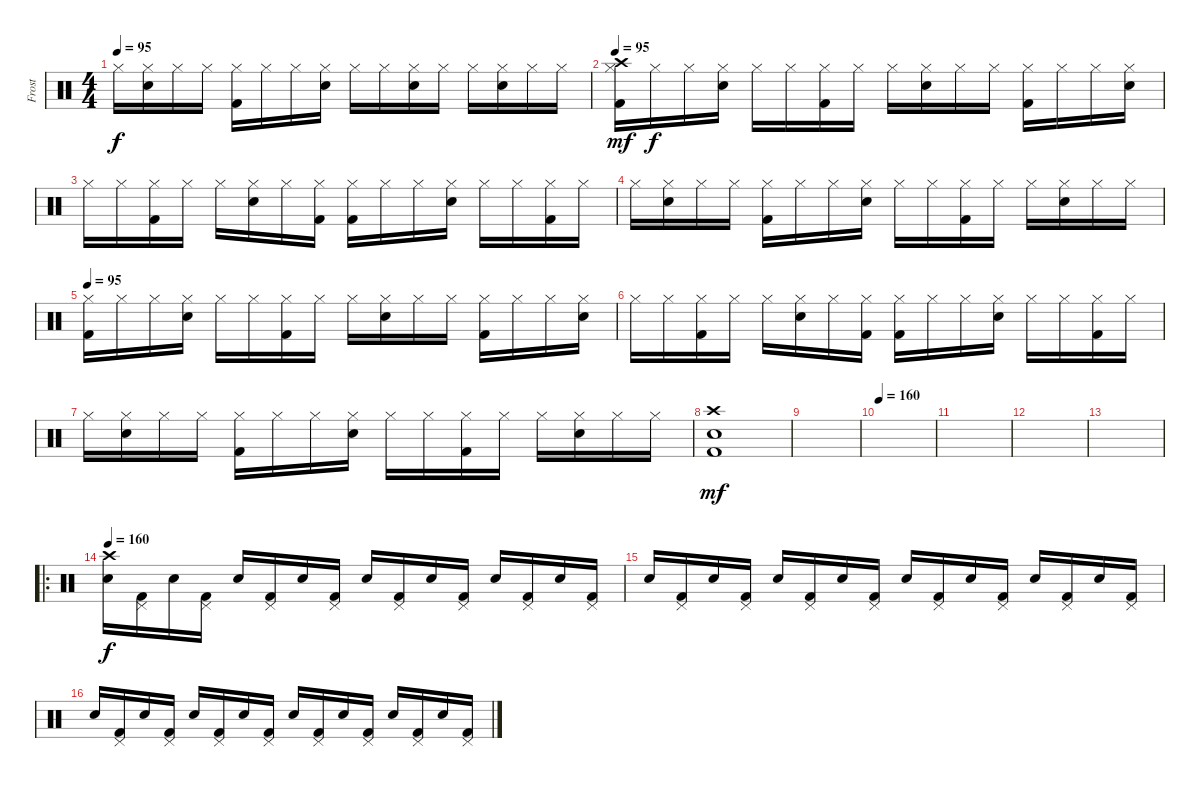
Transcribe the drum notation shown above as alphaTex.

\track ("Frost" "Frost") {instrument percussion}
\staff {score}
\articulation defaults
\ts (4 4)
\tempo 95
\clef neutral
\ks c "Hi-Hat (closed)".16{dy f}
("Hi-Hat (closed)" "Electric Snare (hit)").16 "Hi-Hat (closed)".16 "Hi-Hat (closed)".16 ("Hi-Hat (closed)" "Kick (hit) 2").16 "Hi-Hat (closed)".16 "Hi-Hat (closed)".16 ("Hi-Hat (closed)" "Electric Snare (hit)").16 "Hi-Hat (closed)".16 "Hi-Hat (closed)".16 ("Hi-Hat (closed)" "Electric Snare (hit)").16 "Hi-Hat (closed)".16 "Hi-Hat (closed)".16 ("Hi-Hat (closed)" "Electric Snare (hit)").16 "Hi-Hat (closed)".16 "Hi-Hat (closed)".16 |
\tempo 95
("Crash high (hit)" "Hi-Hat (closed)" "Kick (hit) 2").16{dy mf} "Hi-Hat (closed)".16{dy f} "Hi-Hat (closed)".16 ("Hi-Hat (closed)" "Electric Snare (hit)").16 "Hi-Hat (closed)".16 "Hi-Hat (closed)".16 ("Hi-Hat (closed)" "Kick (hit) 2").16 "Hi-Hat (closed)".16 "Hi-Hat (closed)".16 ("Hi-Hat (closed)" "Electric Snare (hit)").16 "Hi-Hat (closed)".16 "Hi-Hat (closed)".16 ("Hi-Hat (closed)" "Kick (hit) 2").16 "Hi-Hat (closed)".16 "Hi-Hat (closed)".16 ("Hi-Hat (closed)" "Electric Snare (hit)").16 |
"Hi-Hat (closed)".16 "Hi-Hat (closed)".16 ("Hi-Hat (closed)" "Kick (hit) 2").16 "Hi-Hat (closed)".16 "Hi-Hat (closed)".16 ("Hi-Hat (closed)" "Electric Snare (hit)").16 "Hi-Hat (closed)".16 ("Hi-Hat (closed)" "Kick (hit) 2").16 ("Hi-Hat (closed)" "Kick (hit) 2").16 "Hi-Hat (closed)".16 "Hi-Hat (closed)".16 ("Hi-Hat (closed)" "Electric Snare (hit)").16 "Hi-Hat (closed)".16 "Hi-Hat (closed)".16 ("Hi-Hat (closed)" "Kick (hit) 2").16 "Hi-Hat (closed)".16 |
"Hi-Hat (closed)".16 ("Hi-Hat (closed)" "Electric Snare (hit)").16 "Hi-Hat (closed)".16 "Hi-Hat (closed)".16 ("Hi-Hat (closed)" "Kick (hit) 2").16 "Hi-Hat (closed)".16 "Hi-Hat (closed)".16 ("Hi-Hat (closed)" "Electric Snare (hit)").16 "Hi-Hat (closed)".16 "Hi-Hat (closed)".16 ("Hi-Hat (closed)" "Kick (hit) 2").16 "Hi-Hat (closed)".16 "Hi-Hat (closed)".16 ("Hi-Hat (closed)" "Electric Snare (hit)").16 "Hi-Hat (closed)".16 "Hi-Hat (closed)".16 |
\tempo 95
("Hi-Hat (closed)" "Kick (hit) 2").16 "Hi-Hat (closed)".16 "Hi-Hat (closed)".16 ("Hi-Hat (closed)" "Electric Snare (hit)").16 "Hi-Hat (closed)".16 "Hi-Hat (closed)".16 ("Hi-Hat (closed)" "Kick (hit) 2").16 "Hi-Hat (closed)".16 "Hi-Hat (closed)".16 ("Hi-Hat (closed)" "Electric Snare (hit)").16 "Hi-Hat (closed)".16 "Hi-Hat (closed)".16 ("Hi-Hat (closed)" "Kick (hit) 2").16 "Hi-Hat (closed)".16 "Hi-Hat (closed)".16 ("Hi-Hat (closed)" "Electric Snare (hit)").16 |
"Hi-Hat (closed)".16 "Hi-Hat (closed)".16 ("Hi-Hat (closed)" "Kick (hit) 2").16 "Hi-Hat (closed)".16 "Hi-Hat (closed)".16 ("Hi-Hat (closed)" "Electric Snare (hit)").16 "Hi-Hat (closed)".16 ("Hi-Hat (closed)" "Kick (hit) 2").16 ("Hi-Hat (closed)" "Kick (hit) 2").16 "Hi-Hat (closed)".16 "Hi-Hat (closed)".16 ("Hi-Hat (closed)" "Electric Snare (hit)").16 "Hi-Hat (closed)".16 "Hi-Hat (closed)".16 ("Hi-Hat (closed)" "Kick (hit) 2").16 "Hi-Hat (closed)".16 |
"Hi-Hat (closed)".16 ("Hi-Hat (closed)" "Electric Snare (hit)").16 "Hi-Hat (closed)".16 "Hi-Hat (closed)".16 ("Hi-Hat (closed)" "Kick (hit) 2").16 "Hi-Hat (closed)".16 "Hi-Hat (closed)".16 ("Hi-Hat (closed)" "Electric Snare (hit)").16 "Hi-Hat (closed)".16 "Hi-Hat (closed)".16 ("Hi-Hat (closed)" "Kick (hit) 2").16 "Hi-Hat (closed)".16 "Hi-Hat (closed)".16 ("Hi-Hat (closed)" "Electric Snare (hit)").16 "Hi-Hat (closed)".16 "Hi-Hat (closed)".16 |
("Crash high (hit)" "Electric Snare (hit)" "Kick (hit) 2").1{dy mf} |
|
\tempo 160
|
|
|
|
\ro
\tempo 160
("Crash high (hit)" "Electric Snare (hit)").16{dy f} ("Pedal Hi-Hat (hit)" "Kick (hit) 2").16 "Electric Snare (hit)".16 ("Pedal Hi-Hat (hit)" "Kick (hit) 2").16 "Electric Snare (hit)".16 ("Pedal Hi-Hat (hit)" "Kick (hit) 2").16 "Electric Snare (hit)".16 ("Pedal Hi-Hat (hit)" "Kick (hit) 2").16 "Electric Snare (hit)".16 ("Pedal Hi-Hat (hit)" "Kick (hit) 2").16 "Electric Snare (hit)".16 ("Pedal Hi-Hat (hit)" "Kick (hit) 2").16 "Electric Snare (hit)".16 ("Pedal Hi-Hat (hit)" "Kick (hit) 2").16 "Electric Snare (hit)".16 ("Pedal Hi-Hat (hit)" "Kick (hit) 2").16 |
"Electric Snare (hit)".16 ("Pedal Hi-Hat (hit)" "Kick (hit) 2").16 "Electric Snare (hit)".16 ("Pedal Hi-Hat (hit)" "Kick (hit) 2").16 "Electric Snare (hit)".16 ("Pedal Hi-Hat (hit)" "Kick (hit) 2").16 "Electric Snare (hit)".16 ("Pedal Hi-Hat (hit)" "Kick (hit) 2").16 "Electric Snare (hit)".16 ("Pedal Hi-Hat (hit)" "Kick (hit) 2").16 "Electric Snare (hit)".16 ("Pedal Hi-Hat (hit)" "Kick (hit) 2").16 "Electric Snare (hit)".16 ("Pedal Hi-Hat (hit)" "Kick (hit) 2").16 "Electric Snare (hit)".16 ("Pedal Hi-Hat (hit)" "Kick (hit) 2").16 |
"Electric Snare (hit)".16 ("Pedal Hi-Hat (hit)" "Kick (hit) 2").16 "Electric Snare (hit)".16 ("Pedal Hi-Hat (hit)" "Kick (hit) 2").16 "Electric Snare (hit)".16 ("Pedal Hi-Hat (hit)" "Kick (hit) 2").16 "Electric Snare (hit)".16 ("Pedal Hi-Hat (hit)" "Kick (hit) 2").16 "Electric Snare (hit)".16 ("Pedal Hi-Hat (hit)" "Kick (hit) 2").16 "Electric Snare (hit)".16 ("Pedal Hi-Hat (hit)" "Kick (hit) 2").16 "Electric Snare (hit)".16 ("Pedal Hi-Hat (hit)" "Kick (hit) 2").16 "Electric Snare (hit)".16 ("Pedal Hi-Hat (hit)" "Kick (hit) 2").16
